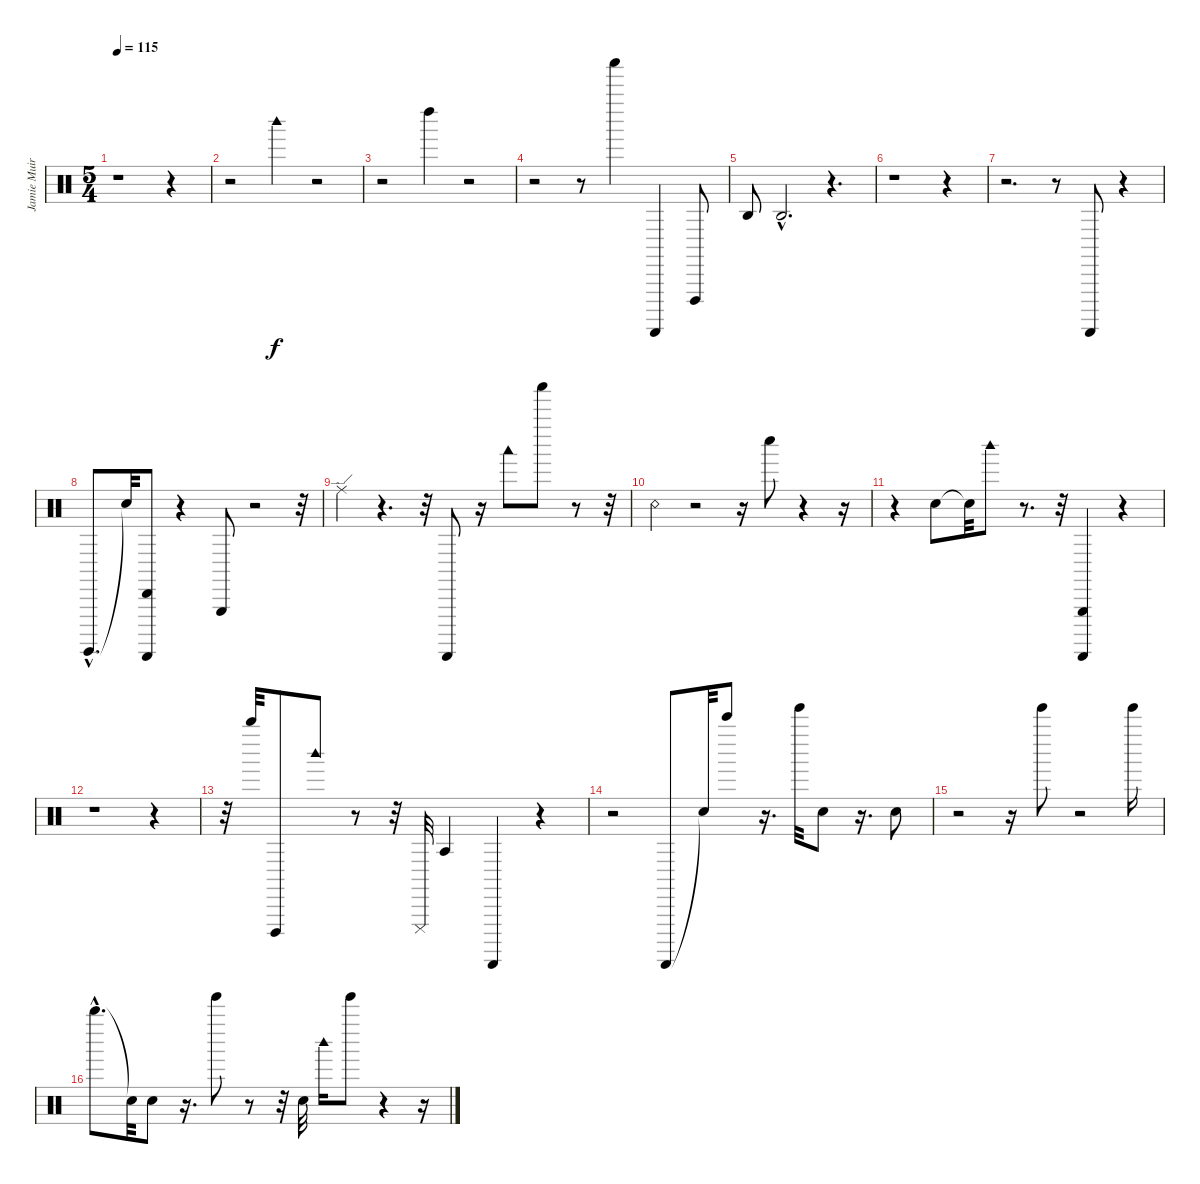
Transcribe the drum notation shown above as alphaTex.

\track ("Jamie Muir percussion" "Jamie Muir") {instrument percussion}
\staff {score}
\articulation defaults
\ts (5 4)
\tempo 115
\clef neutral
\ks c
r.1{dy f} r.4 |
r.2 "Woodblock high (hit)".4 r.2 |
r.2 "Left Maraca (hit)".4 r.2 |
r.2 r.8 "Shaker (hit)".4 "Guiro (scrap-return)".4 "Cuica (open)".8 |
"Agogo high (hit)".8 "Agogo high (hit)"{hac}.2{d} r.4{d} |
r.1 r.4 |
r.2{d} r.8 "Guiro (scrap-return)".8 r.4 |
"Surdo (hit)"{hac}.8{d} "Snare (hit)"{t}.32 ("Cabasa (hit)" "Guiro (scrap-return)").8 r.4 "Triangle (hit)".8 r.2 r.32 |
"Ride (edge)".4 r.4{d} r.32 "Guiro (scrap-return)".8 r.16 "Woodblock low (hit)".8 "Shaker (hit)".8 r.8 r.32 |
"Snare (rim shot)".4 r.2 r.16 "Whistle low (hit)".8 r.4 r.16 |
r.4 "Snare (hit)".8 "Snare (hit)"{t}.32 "Woodblock high (hit)".8 r.8{d} r.32 ("Guiro (scrap-return)" "Triangle (hit)").4 r.4 |
r.1 r.4 |
r.32 "Whistle high (hit)".32 "Cuica (open)".8 "Woodblock high (hit)".8 r.8 r.32 "Cuica (mute)".32 "Agogo tow (hit)".4 "Guiro (scrap-return)".4 r.4 |
r.2 "Guiro (scrap-return)".8 "Snare (hit)"{t}.32 "Bell Tree (hit)".8 r.16{d} "Tinkle Bell (hit)".32 "Snare (hit)".8 r.16{d} "Snare (hit)".8 |
r.2 r.16 "Tinkle Bell (hit)".8 r.2 "Tinkle Bell (hit)".16 |
"Whistle high (hit)"{hac}.8{d} "Snare (hit)"{t}.32 "Snare (hit)".8 r.16{d} "Tinkle Bell (hit)".8 r.8 r.32 "Snare (hit)".32 "Woodblock high (hit)".16 "Tinkle Bell (hit)".8 r.4 r.16
